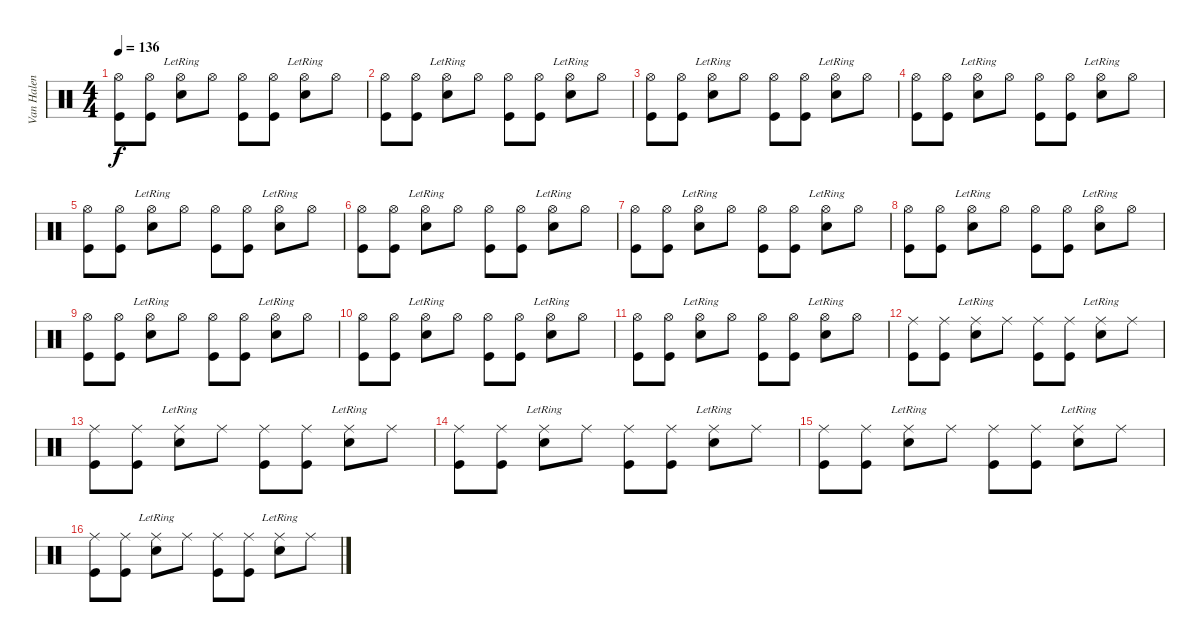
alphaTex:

\track ("Van Halen" "Van Halen") {instrument percussion}
\staff {score}
\articulation defaults
\ts (4 4)
\tempo 136
\clef neutral
\ks c
("Kick (hit)" "Hi-Hat (open)").8{dy f} ("Kick (hit)" "Hi-Hat (open)").8 ("Snare (hit) 2"{lr} "Hi-Hat (open)").8 "Hi-Hat (open)".8 ("Kick (hit)" "Hi-Hat (open)").8 ("Kick (hit)" "Hi-Hat (open)").8 ("Snare (hit) 2"{lr} "Hi-Hat (open)").8 "Hi-Hat (open)".8 |
("Kick (hit)" "Hi-Hat (open)").8 ("Kick (hit)" "Hi-Hat (open)").8 ("Snare (hit) 2"{lr} "Hi-Hat (open)").8 "Hi-Hat (open)".8 ("Kick (hit)" "Hi-Hat (open)").8 ("Kick (hit)" "Hi-Hat (open)").8 ("Snare (hit) 2"{lr} "Hi-Hat (open)").8 "Hi-Hat (open)".8 |
("Kick (hit)" "Hi-Hat (open)").8 ("Kick (hit)" "Hi-Hat (open)").8 ("Snare (hit) 2"{lr} "Hi-Hat (open)").8 "Hi-Hat (open)".8 ("Kick (hit)" "Hi-Hat (open)").8 ("Kick (hit)" "Hi-Hat (open)").8 ("Snare (hit) 2"{lr} "Hi-Hat (open)").8 "Hi-Hat (open)".8 |
("Kick (hit)" "Hi-Hat (open)").8 ("Kick (hit)" "Hi-Hat (open)").8 ("Snare (hit) 2"{lr} "Hi-Hat (open)").8 "Hi-Hat (open)".8 ("Kick (hit)" "Hi-Hat (open)").8 ("Kick (hit)" "Hi-Hat (open)").8 ("Snare (hit) 2"{lr} "Hi-Hat (open)").8 "Hi-Hat (open)".8 |
("Kick (hit)" "Hi-Hat (open)").8 ("Kick (hit)" "Hi-Hat (open)").8 ("Snare (hit) 2"{lr} "Hi-Hat (open)").8 "Hi-Hat (open)".8 ("Kick (hit)" "Hi-Hat (open)").8 ("Kick (hit)" "Hi-Hat (open)").8 ("Snare (hit) 2"{lr} "Hi-Hat (open)").8 "Hi-Hat (open)".8 |
("Kick (hit)" "Hi-Hat (open)").8 ("Kick (hit)" "Hi-Hat (open)").8 ("Snare (hit) 2"{lr} "Hi-Hat (open)").8 "Hi-Hat (open)".8 ("Kick (hit)" "Hi-Hat (open)").8 ("Kick (hit)" "Hi-Hat (open)").8 ("Snare (hit) 2"{lr} "Hi-Hat (open)").8 "Hi-Hat (open)".8 |
("Kick (hit)" "Hi-Hat (open)").8 ("Kick (hit)" "Hi-Hat (open)").8 ("Snare (hit) 2"{lr} "Hi-Hat (open)").8 "Hi-Hat (open)".8 ("Kick (hit)" "Hi-Hat (open)").8 ("Kick (hit)" "Hi-Hat (open)").8 ("Snare (hit) 2"{lr} "Hi-Hat (open)").8 "Hi-Hat (open)".8 |
("Kick (hit)" "Hi-Hat (open)").8 ("Kick (hit)" "Hi-Hat (open)").8 ("Snare (hit) 2"{lr} "Hi-Hat (open)").8 "Hi-Hat (open)".8 ("Kick (hit)" "Hi-Hat (open)").8 ("Kick (hit)" "Hi-Hat (open)").8 ("Snare (hit) 2"{lr} "Hi-Hat (open)").8 "Hi-Hat (open)".8 |
("Kick (hit)" "Hi-Hat (open)").8 ("Kick (hit)" "Hi-Hat (open)").8 ("Snare (hit) 2"{lr} "Hi-Hat (open)").8 "Hi-Hat (open)".8 ("Kick (hit)" "Hi-Hat (open)").8 ("Kick (hit)" "Hi-Hat (open)").8 ("Snare (hit) 2"{lr} "Hi-Hat (open)").8 "Hi-Hat (open)".8 |
("Kick (hit)" "Hi-Hat (open)").8 ("Kick (hit)" "Hi-Hat (open)").8 ("Snare (hit) 2"{lr} "Hi-Hat (open)").8 "Hi-Hat (open)".8 ("Kick (hit)" "Hi-Hat (open)").8 ("Kick (hit)" "Hi-Hat (open)").8 ("Snare (hit) 2"{lr} "Hi-Hat (open)").8 "Hi-Hat (open)".8 |
("Kick (hit)" "Hi-Hat (open)").8 ("Kick (hit)" "Hi-Hat (open)").8 ("Snare (hit) 2"{lr} "Hi-Hat (open)").8 "Hi-Hat (open)".8 ("Kick (hit)" "Hi-Hat (open)").8 ("Kick (hit)" "Hi-Hat (open)").8 ("Snare (hit) 2"{lr} "Hi-Hat (open)").8 "Hi-Hat (open)".8 |
("Kick (hit)" "Ride (middle)").8 ("Kick (hit)" "Ride (middle)").8 ("Snare (hit) 2"{lr} "Ride (middle)").8 "Ride (middle)".8 ("Kick (hit)" "Ride (middle)").8 ("Kick (hit)" "Ride (middle)").8 ("Snare (hit) 2"{lr} "Ride (middle)").8 "Ride (middle)".8 |
("Kick (hit)" "Ride (middle)").8 ("Kick (hit)" "Ride (middle)").8 ("Snare (hit) 2"{lr} "Ride (middle)").8 "Ride (middle)".8 ("Kick (hit)" "Ride (middle)").8 ("Kick (hit)" "Ride (middle)").8 ("Snare (hit) 2"{lr} "Ride (middle)").8 "Ride (middle)".8 |
("Kick (hit)" "Ride (middle)").8 ("Kick (hit)" "Ride (middle)").8 ("Snare (hit) 2"{lr} "Ride (middle)").8 "Ride (middle)".8 ("Kick (hit)" "Ride (middle)").8 ("Kick (hit)" "Ride (middle)").8 ("Snare (hit) 2"{lr} "Ride (middle)").8 "Ride (middle)".8 |
("Kick (hit)" "Ride (middle)").8 ("Kick (hit)" "Ride (middle)").8 ("Snare (hit) 2"{lr} "Ride (middle)").8 "Ride (middle)".8 ("Kick (hit)" "Ride (middle)").8 ("Kick (hit)" "Ride (middle)").8 ("Snare (hit) 2"{lr} "Ride (middle)").8 "Ride (middle)".8 |
("Kick (hit)" "Ride (middle)").8 ("Kick (hit)" "Ride (middle)").8 ("Snare (hit) 2"{lr} "Ride (middle)").8 "Ride (middle)".8 ("Kick (hit)" "Ride (middle)").8 ("Kick (hit)" "Ride (middle)").8 ("Snare (hit) 2"{lr} "Ride (middle)").8 "Ride (middle)".8
